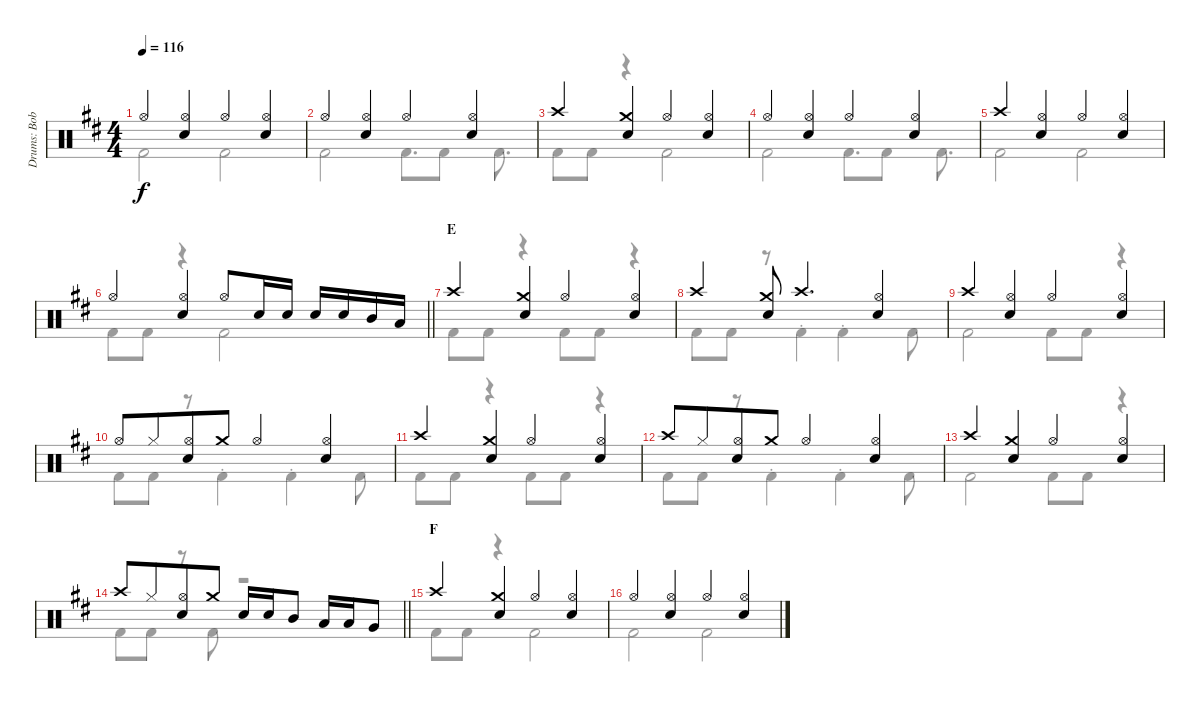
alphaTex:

\track ("Drums: Bobby" "Drums: Bob") {instrument percussion}
\staff {score}
\articulation defaults
\voice
\ts (4 4)
\tempo 116
\clef neutral
\ks d "Hi-Hat (open)".4{dy f}
("Hi-Hat (open)" "Snare (hit) 2").4 "Hi-Hat (open)".4 ("Hi-Hat (open)" "Snare (hit) 2").4 |
"Hi-Hat (open)".4 ("Hi-Hat (open)" "Snare (hit) 2").4 "Hi-Hat (open)".4 ("Hi-Hat (open)" "Snare (hit) 2").4 |
"Crash high (hit)".4 ("Crash medium (hit)" "Snare (hit) 2").4 "Hi-Hat (open)".4 ("Hi-Hat (open)" "Snare (hit) 2").4 |
"Hi-Hat (open)".4 ("Hi-Hat (open)" "Snare (hit) 2").4 "Hi-Hat (open)".4 ("Hi-Hat (open)" "Snare (hit) 2").4 |
"Crash high (hit)".4 ("Hi-Hat (open)" "Snare (hit) 2").4 "Hi-Hat (open)".4 ("Hi-Hat (open)" "Snare (hit) 2").4 |
\barLineRight lightlight "Hi-Hat (open)".4
("Hi-Hat (open)" "Snare (hit) 2").4 "Hi-Hat (open)".8 "Snare (hit) 2".16 "Snare (hit) 2".16 "Snare (hit) 2".16 "Snare (hit) 2".16 "Mid Tom (hit)".16 "Low Tom (hit)".16 |
\section ("" "E")
"Crash high (hit)".4 ("Crash medium (hit)" "Snare (hit) 2").4 "Hi-Hat (open)".4 ("Hi-Hat (open)" "Snare (hit) 2").4 |
"Crash high (hit)".4 ("Crash medium (hit)" "Snare (hit) 2").8 "Crash high (hit)".4{d} ("Hi-Hat (open)" "Snare (hit) 2").4 |
"Crash high (hit)".4 ("Hi-Hat (open)" "Snare (hit) 2").4 "Hi-Hat (open)".4 ("Hi-Hat (open)" "Snare (hit) 2").4 |
"Hi-Hat (open)".8 "Hi-Hat (closed)".8{beam merge} ("Hi-Hat (open)" "Snare (hit) 2").8 "Crash medium (hit)".8 "Hi-Hat (open)".4 ("Hi-Hat (open)" "Snare (hit) 2").4 |
"Crash high (hit)".4 ("Crash medium (hit)" "Snare (hit) 2").4 "Hi-Hat (open)".4 ("Hi-Hat (open)" "Snare (hit) 2").4 |
"Crash high (hit)".8 "Hi-Hat (closed)".8{beam merge} ("Hi-Hat (open)" "Snare (hit) 2").8 "Crash medium (hit)".8 "Hi-Hat (open)".4 ("Hi-Hat (open)" "Snare (hit) 2").4 |
"Crash high (hit)".4 ("Crash medium (hit)" "Snare (hit) 2").4 "Hi-Hat (open)".4 ("Hi-Hat (open)" "Snare (hit) 2").4 |
\barLineRight lightlight "Crash high (hit)".8 "Hi-Hat (closed)".8{beam merge}
("Hi-Hat (open)" "Snare (hit) 2").8 "Crash medium (hit)".8 "Snare (hit) 2".16 "Snare (hit) 2".16 "Mid Tom (hit)".8 "Low Tom (hit)".16 "Low Tom (hit)".16 "Very Low Tom (hit)".8 |
\section ("" "F")
"Crash high (hit)".4 ("Crash medium (hit)" "Snare (hit) 2").4 "Hi-Hat (open)".4 ("Hi-Hat (open)" "Snare (hit) 2").4 |
"Hi-Hat (open)".4 ("Hi-Hat (open)" "Snare (hit) 2").4 "Hi-Hat (open)".4 ("Hi-Hat (open)" "Snare (hit) 2").4
\voice
\clef neutral
\ottava regular
\simile none
\ks d "Kick (hit) 2".2{dy f} "Kick (hit) 2".2
|
"Kick (hit) 2".2 "Kick (hit) 2".8{d} "Kick (hit) 2".8 "Kick (hit) 2".8{d} |
"Kick (hit) 2".8 "Kick (hit) 2".8 r.4 "Kick (hit) 2".2 |
"Kick (hit) 2".2 "Kick (hit) 2".8{d} "Kick (hit) 2".8 "Kick (hit) 2".8{d} |
"Kick (hit) 2".2 "Kick (hit) 2".2 |
\barLineRight lightlight "Kick (hit) 2".8 "Kick (hit) 2".8
r.4 "Kick (hit) 2".2 |
"Kick (hit) 2".8 "Kick (hit) 2".8 r.4 "Kick (hit) 2".8 "Kick (hit) 2".8 r.4 |
"Kick (hit) 2".8 "Kick (hit) 2".8 r.8 "Kick (hit) 2"{st}.4 "Kick (hit) 2"{st}.4 "Kick (hit) 2".8 |
"Kick (hit) 2".2 "Kick (hit) 2".8 "Kick (hit) 2".8 r.4 |
"Kick (hit) 2".8 "Kick (hit) 2".8 r.8 "Kick (hit) 2"{st}.4 "Kick (hit) 2"{st}.4 "Kick (hit) 2".8 |
"Kick (hit) 2".8 "Kick (hit) 2".8 r.4 "Kick (hit) 2".8 "Kick (hit) 2".8 r.4 |
"Kick (hit) 2".8 "Kick (hit) 2".8 r.8 "Kick (hit) 2"{st}.4 "Kick (hit) 2"{st}.4 "Kick (hit) 2".8 |
"Kick (hit) 2".2 "Kick (hit) 2".8 "Kick (hit) 2".8 r.4 |
\barLineRight lightlight "Kick (hit) 2".8 "Kick (hit) 2".8
r.8 "Kick (hit) 2".8 r.2 |
"Kick (hit) 2".8 "Kick (hit) 2".8 r.4 "Kick (hit) 2".2 |
"Kick (hit) 2".2 "Kick (hit) 2".2
